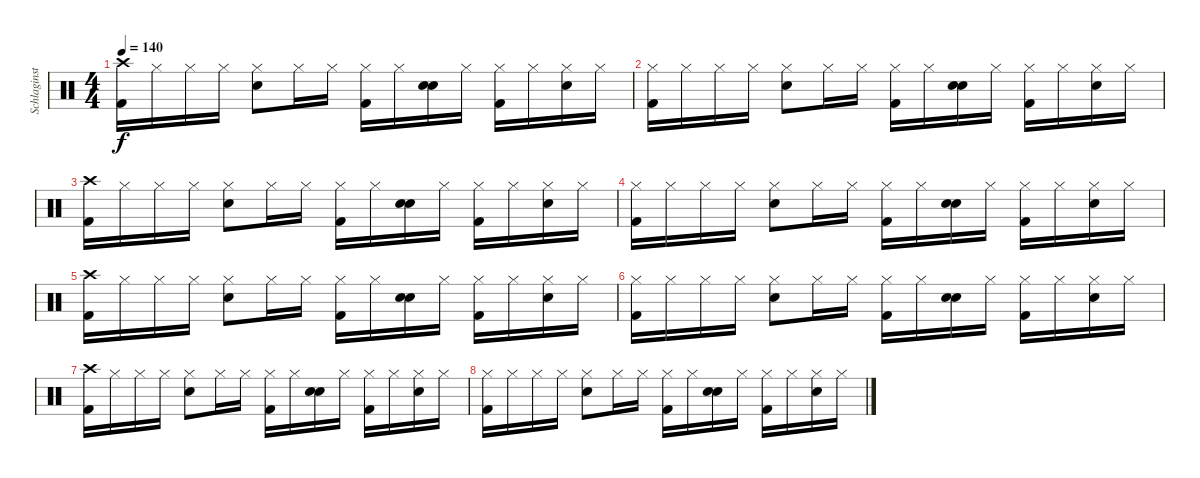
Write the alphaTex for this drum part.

\track ("Schlaginstrumente - Auswahl" "Schlaginst") {instrument percussion}
\staff {score}
\articulation defaults
\ts (4 4)
\tempo 140
\clef neutral
\ks c
("Crash high (hit)" "Kick (hit) 2").16{dy f} "Hi-Hat (closed)".16 "Hi-Hat (closed)".16 "Hi-Hat (closed)".16 ("Hi-Hat (closed)" "Electric Snare (hit)").8 "Hi-Hat (closed)".16 "Hi-Hat (closed)".16 ("Hi-Hat (closed)" "Kick (hit) 2").16 "Hi-Hat (closed)".16 ("Snare (hit)" "Electric Snare (hit)").16 "Hi-Hat (closed)".16 ("Hi-Hat (closed)" "Kick (hit) 2").16 "Hi-Hat (closed)".16 ("Hi-Hat (closed)" "Electric Snare (hit)").16 "Hi-Hat (closed)".16 |
("Hi-Hat (closed)" "Kick (hit) 2").16 "Hi-Hat (closed)".16 "Hi-Hat (closed)".16 "Hi-Hat (closed)".16 ("Hi-Hat (closed)" "Electric Snare (hit)").8 "Hi-Hat (closed)".16 "Hi-Hat (closed)".16 ("Hi-Hat (closed)" "Kick (hit) 2").16 "Hi-Hat (closed)".16 ("Snare (hit)" "Electric Snare (hit)").16 "Hi-Hat (closed)".16 ("Hi-Hat (closed)" "Kick (hit) 2").16 "Hi-Hat (closed)".16 ("Hi-Hat (closed)" "Electric Snare (hit)").16 "Hi-Hat (closed)".16 |
("Crash high (hit)" "Kick (hit) 2").16 "Hi-Hat (closed)".16 "Hi-Hat (closed)".16 "Hi-Hat (closed)".16 ("Hi-Hat (closed)" "Electric Snare (hit)").8 "Hi-Hat (closed)".16 "Hi-Hat (closed)".16 ("Hi-Hat (closed)" "Kick (hit) 2").16 "Hi-Hat (closed)".16 ("Snare (hit)" "Electric Snare (hit)").16 "Hi-Hat (closed)".16 ("Hi-Hat (closed)" "Kick (hit) 2").16 "Hi-Hat (closed)".16 ("Hi-Hat (closed)" "Electric Snare (hit)").16 "Hi-Hat (closed)".16 |
("Hi-Hat (closed)" "Kick (hit) 2").16 "Hi-Hat (closed)".16 "Hi-Hat (closed)".16 "Hi-Hat (closed)".16 ("Hi-Hat (closed)" "Electric Snare (hit)").8 "Hi-Hat (closed)".16 "Hi-Hat (closed)".16 ("Hi-Hat (closed)" "Kick (hit) 2").16 "Hi-Hat (closed)".16 ("Snare (hit)" "Electric Snare (hit)").16 "Hi-Hat (closed)".16 ("Hi-Hat (closed)" "Kick (hit) 2").16 "Hi-Hat (closed)".16 ("Hi-Hat (closed)" "Electric Snare (hit)").16 "Hi-Hat (closed)".16 |
("Crash high (hit)" "Kick (hit) 2").16 "Hi-Hat (closed)".16 "Hi-Hat (closed)".16 "Hi-Hat (closed)".16 ("Hi-Hat (closed)" "Electric Snare (hit)").8 "Hi-Hat (closed)".16 "Hi-Hat (closed)".16 ("Hi-Hat (closed)" "Kick (hit) 2").16 "Hi-Hat (closed)".16 ("Snare (hit)" "Electric Snare (hit)").16 "Hi-Hat (closed)".16 ("Hi-Hat (closed)" "Kick (hit) 2").16 "Hi-Hat (closed)".16 ("Hi-Hat (closed)" "Electric Snare (hit)").16 "Hi-Hat (closed)".16 |
("Hi-Hat (closed)" "Kick (hit) 2").16 "Hi-Hat (closed)".16 "Hi-Hat (closed)".16 "Hi-Hat (closed)".16 ("Hi-Hat (closed)" "Electric Snare (hit)").8 "Hi-Hat (closed)".16 "Hi-Hat (closed)".16 ("Hi-Hat (closed)" "Kick (hit) 2").16 "Hi-Hat (closed)".16 ("Snare (hit)" "Electric Snare (hit)").16 "Hi-Hat (closed)".16 ("Hi-Hat (closed)" "Kick (hit) 2").16 "Hi-Hat (closed)".16 ("Hi-Hat (closed)" "Electric Snare (hit)").16 "Hi-Hat (closed)".16 |
("Crash high (hit)" "Kick (hit) 2").16 "Hi-Hat (closed)".16 "Hi-Hat (closed)".16 "Hi-Hat (closed)".16 ("Hi-Hat (closed)" "Electric Snare (hit)").8 "Hi-Hat (closed)".16 "Hi-Hat (closed)".16 ("Hi-Hat (closed)" "Kick (hit) 2").16 "Hi-Hat (closed)".16 ("Snare (hit)" "Electric Snare (hit)").16 "Hi-Hat (closed)".16 ("Hi-Hat (closed)" "Kick (hit) 2").16 "Hi-Hat (closed)".16 ("Hi-Hat (closed)" "Electric Snare (hit)").16 "Hi-Hat (closed)".16 |
("Hi-Hat (closed)" "Kick (hit) 2").16 "Hi-Hat (closed)".16 "Hi-Hat (closed)".16 "Hi-Hat (closed)".16 ("Hi-Hat (closed)" "Electric Snare (hit)").8 "Hi-Hat (closed)".16 "Hi-Hat (closed)".16 ("Hi-Hat (closed)" "Kick (hit) 2").16 "Hi-Hat (closed)".16 ("Snare (hit)" "Electric Snare (hit)").16 "Hi-Hat (closed)".16 ("Hi-Hat (closed)" "Kick (hit) 2").16 "Hi-Hat (closed)".16 ("Hi-Hat (closed)" "Electric Snare (hit)").16 "Hi-Hat (closed)".16
